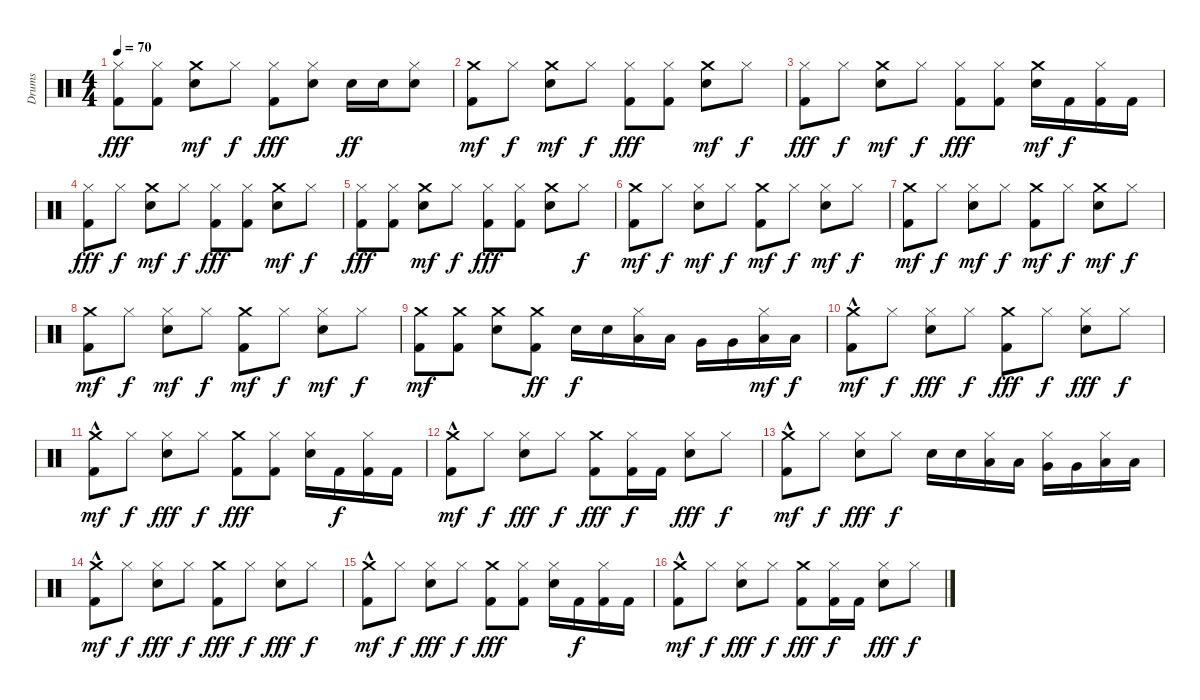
\track ("Drums" "Drums") {instrument percussion}
\staff {score}
\articulation defaults
\ts (4 4)
\tempo 70
\clef neutral
\ks c
("Hi-Hat (closed)" "Kick (hit) 2").8{dy fff} ("Kick (hit) 2" "Hi-Hat (closed)").8 ("Snare (hit) 2" "Crash medium (hit)").8{dy mf} "Hi-Hat (closed)".8{dy f} ("Kick (hit) 2" "Hi-Hat (closed)").8{dy fff} ("Snare (hit) 2" "Hi-Hat (closed)").8 "Snare (hit) 2".16{dy ff} "Snare (hit) 2".16 ("Snare (hit) 2" "Hi-Hat (closed)").8 |
("Kick (hit) 2" "Crash medium (hit)").8{dy mf} "Hi-Hat (closed)".8{dy f} ("Snare (hit) 2" "Crash medium (hit)").8{dy mf} "Hi-Hat (closed)".8{dy f} ("Kick (hit) 2" "Hi-Hat (closed)").8{dy fff} ("Hi-Hat (closed)" "Kick (hit) 2").8 ("Snare (hit) 2" "Crash medium (hit)").8{dy mf} "Hi-Hat (closed)".8{dy f} |
("Kick (hit) 2" "Hi-Hat (closed)").8{dy fff} "Hi-Hat (closed)".8{dy f} ("Snare (hit) 2" "Crash medium (hit)").8{dy mf} "Hi-Hat (closed)".8{dy f} ("Kick (hit) 2" "Hi-Hat (closed)").8{dy fff} ("Kick (hit) 2" "Hi-Hat (closed)").8 ("Snare (hit) 2" "Crash medium (hit)").16{dy mf} "Kick (hit) 2".16{dy f} ("Kick (hit) 2" "Hi-Hat (closed)").16 "Kick (hit) 2".16 |
("Hi-Hat (closed)" "Kick (hit) 2").8{dy fff} "Hi-Hat (closed)".8{dy f} ("Snare (hit) 2" "Crash medium (hit)").8{dy mf} "Hi-Hat (closed)".8{dy f} ("Kick (hit) 2" "Hi-Hat (closed)").8{dy fff} ("Kick (hit) 2" "Hi-Hat (closed)").8 ("Snare (hit) 2" "Crash medium (hit)").8{dy mf} "Hi-Hat (closed)".8{dy f} |
("Hi-Hat (closed)" "Kick (hit) 2").8{dy fff} ("Kick (hit) 2" "Hi-Hat (closed)").8 ("Snare (hit) 2" "Crash medium (hit)").8{dy mf} "Hi-Hat (closed)".8{dy f} ("Kick (hit) 2" "Hi-Hat (closed)").8{dy fff} ("Kick (hit) 2" "Hi-Hat (closed)").8 ("Crash medium (hit)" "Snare (hit) 2").8 "Hi-Hat (closed)".8{dy f} |
("Kick (hit) 2" "Crash medium (hit)").8{dy mf} "Hi-Hat (closed)".8{dy f} ("Snare (hit) 2" "Hi-Hat (closed)").8{dy mf} "Hi-Hat (closed)".8{dy f} ("Kick (hit) 2" "Crash medium (hit)").8{dy mf} "Hi-Hat (closed)".8{dy f} ("Snare (hit) 2" "Hi-Hat (closed)").8{dy mf} "Hi-Hat (closed)".8{dy f} |
("Kick (hit) 2" "Crash medium (hit)").8{dy mf} "Hi-Hat (closed)".8{dy f} ("Snare (hit) 2" "Hi-Hat (closed)").8{dy mf} "Hi-Hat (closed)".8{dy f} ("Kick (hit) 2" "Crash medium (hit)").8{dy mf} "Hi-Hat (closed)".8{dy f} ("Snare (hit) 2" "Crash medium (hit)").8{dy mf} "Hi-Hat (closed)".8{dy f} |
("Kick (hit) 2" "Crash medium (hit)").8{dy mf} "Hi-Hat (closed)".8{dy f} ("Snare (hit) 2" "Hi-Hat (closed)").8{dy mf} "Hi-Hat (closed)".8{dy f} ("Kick (hit) 2" "Crash medium (hit)").8{dy mf} "Hi-Hat (closed)".8{dy f} ("Snare (hit) 2" "Hi-Hat (closed)").8{dy mf} "Hi-Hat (closed)".8{dy f} |
("Kick (hit) 2" "Crash medium (hit)").8{dy mf} ("Kick (hit) 2" "Crash medium (hit)").8 ("Snare (hit) 2" "Crash medium (hit)").8 ("Crash medium (hit)" "Kick (hit) 2").8{dy ff} "Snare (hit) 2".16{dy f} "Snare (hit) 2".16 ("Low Tom (hit)" "Hi-Hat (closed)").16 "Low Tom (hit)".16 "Very Low Tom (hit)".16 "Very Low Tom (hit)".16 ("Low Floor Tom (hit)" "Hi-Hat (closed)").16{dy mf} "Low Floor Tom (hit)".16{dy f} |
("Kick (hit) 2"{hac} "Crash medium (hit)").8{dy mf} "Hi-Hat (closed)".8{dy f} ("Snare (hit) 2" "Hi-Hat (closed)").8{dy fff} "Hi-Hat (closed)".8{dy f} ("Crash medium (hit)" "Kick (hit) 2").8{dy fff} "Hi-Hat (closed)".8{dy f} ("Snare (hit) 2" "Hi-Hat (closed)").8{dy fff} "Hi-Hat (closed)".8{dy f} |
("Kick (hit) 2"{hac} "Crash medium (hit)").8{dy mf} "Hi-Hat (closed)".8{dy f} ("Snare (hit) 2" "Hi-Hat (closed)").8{dy fff} "Hi-Hat (closed)".8{dy f} ("Crash medium (hit)" "Kick (hit) 2").8{dy fff} ("Kick (hit) 2" "Hi-Hat (closed)").8 ("Snare (hit) 2" "Hi-Hat (closed)").16 "Kick (hit) 2".16{dy f} ("Kick (hit) 2" "Hi-Hat (closed)").16 "Kick (hit) 2".16 |
("Kick (hit) 2"{hac} "Crash medium (hit)").8{dy mf} "Hi-Hat (closed)".8{dy f} ("Snare (hit) 2" "Hi-Hat (closed)").8{dy fff} "Hi-Hat (closed)".8{dy f} ("Crash medium (hit)" "Kick (hit) 2").8{dy fff} ("Kick (hit) 2" "Hi-Hat (closed)").16{dy f} "Kick (hit) 2".16 ("Snare (hit) 2" "Hi-Hat (closed)").8{dy fff} "Hi-Hat (closed)".8{dy f} |
("Kick (hit) 2"{hac} "Crash medium (hit)").8{dy mf} "Hi-Hat (closed)".8{dy f} ("Snare (hit) 2" "Hi-Hat (closed)").8{dy fff} "Hi-Hat (closed)".8{dy f} "Snare (hit) 2".16 "Snare (hit) 2".16 ("Low Tom (hit)" "Hi-Hat (closed)").16 "Low Tom (hit)".16 ("Very Low Tom (hit)" "Hi-Hat (closed)").16 "Very Low Tom (hit)".16 ("Low Floor Tom (hit)" "Hi-Hat (closed)").16 "Low Floor Tom (hit)".16 |
("Kick (hit) 2"{hac} "Crash medium (hit)").8{dy mf} "Hi-Hat (closed)".8{dy f} ("Snare (hit) 2" "Hi-Hat (closed)").8{dy fff} "Hi-Hat (closed)".8{dy f} ("Crash medium (hit)" "Kick (hit) 2").8{dy fff} "Hi-Hat (closed)".8{dy f} ("Snare (hit) 2" "Hi-Hat (closed)").8{dy fff} "Hi-Hat (closed)".8{dy f} |
("Kick (hit) 2"{hac} "Crash medium (hit)").8{dy mf} "Hi-Hat (closed)".8{dy f} ("Snare (hit) 2" "Hi-Hat (closed)").8{dy fff} "Hi-Hat (closed)".8{dy f} ("Crash medium (hit)" "Kick (hit) 2").8{dy fff} ("Kick (hit) 2" "Hi-Hat (closed)").8 ("Snare (hit) 2" "Hi-Hat (closed)").16 "Kick (hit) 2".16{dy f} ("Kick (hit) 2" "Hi-Hat (closed)").16 "Kick (hit) 2".16 |
("Kick (hit) 2"{hac} "Crash medium (hit)").8{dy mf} "Hi-Hat (closed)".8{dy f} ("Snare (hit) 2" "Hi-Hat (closed)").8{dy fff} "Hi-Hat (closed)".8{dy f} ("Crash medium (hit)" "Kick (hit) 2").8{dy fff} ("Kick (hit) 2" "Hi-Hat (closed)").16{dy f} "Kick (hit) 2".16 ("Snare (hit) 2" "Hi-Hat (closed)").8{dy fff} "Hi-Hat (closed)".8{dy f}
